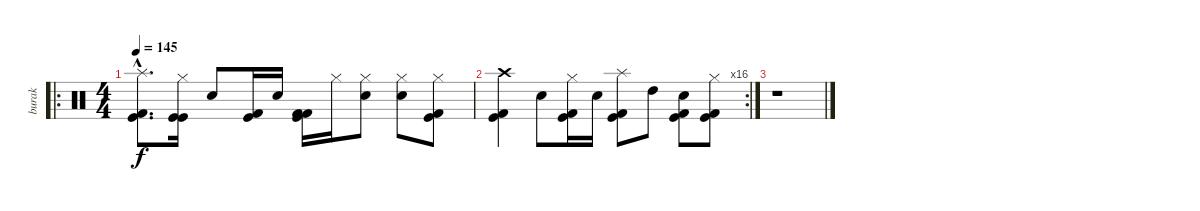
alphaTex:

\track ("burak" "burak") {instrument percussion}
\staff {score}
\articulation defaults
\ro
\ts (4 4)
\tempo 145
\clef neutral
\ks c
("Splash (hit)"{hac} "Kick (hit)"{hac} "Kick (hit) 2"{hac}).8{d dy f} ("Hi-Hat (closed)" "Kick (hit)" "Kick (hit)").16 "Electric Snare (hit)".8 ("Kick (hit)" "Kick (hit) 2").16 "Electric Snare (hit)".16 ("Kick (hit) 2" "Kick (hit)" "Kick (hit) 2").16 "Hi-Hat (closed)".16 ("Hi-Hat (closed)" "Electric Snare (hit)").8 ("Hi-Hat (closed)" "Electric Snare (hit)").8 ("Hi-Hat (closed)" "Kick (hit)" "Kick (hit) 2").8 |
\rc 16
("Crash high (hit)" "Kick (hit)" "Kick (hit) 2").4 "Electric Snare (hit)".8 ("Hi-Hat (closed)" "Kick (hit)" "Kick (hit) 2").16 "Electric Snare (hit)".16 ("Splash (hit)" "Kick (hit)" "Kick (hit) 2").8 "High Tom (hit)".8 ("Electric Snare (hit)" "Kick (hit)" "Kick (hit) 2").8 ("Hi-Hat (closed)" "Kick (hit)" "Kick (hit) 2").8 |
r.1
